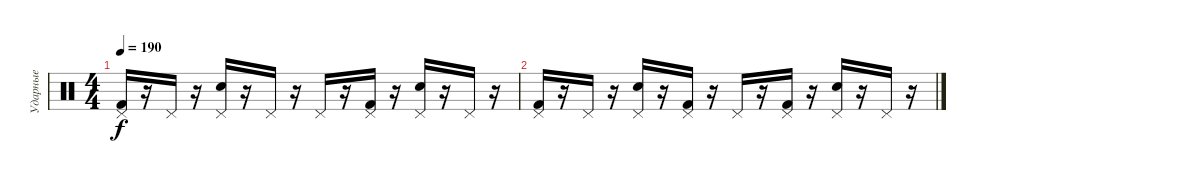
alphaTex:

\track ("Ударные" "Ударные") {instrument percussion}
\staff {score}
\articulation defaults
\ts (4 4)
\tempo 190
\clef neutral
\ks c
("Pedal Hi-Hat (hit)" "Kick (hit) 2").16{dy f} r.16 "Pedal Hi-Hat (hit)".16 r.16 ("Pedal Hi-Hat (hit)" "Electric Snare (hit)").16 r.16 "Pedal Hi-Hat (hit)".16 r.16 "Pedal Hi-Hat (hit)".16 r.16 ("Pedal Hi-Hat (hit)" "Kick (hit) 2").16 r.16 ("Pedal Hi-Hat (hit)" "Electric Snare (hit)").16 r.16 "Pedal Hi-Hat (hit)".16 r.16 |
("Pedal Hi-Hat (hit)" "Kick (hit) 2").16 r.16 "Pedal Hi-Hat (hit)".16 r.16 ("Pedal Hi-Hat (hit)" "Electric Snare (hit)").16 r.16 ("Pedal Hi-Hat (hit)" "Kick (hit) 2").16 r.16 "Pedal Hi-Hat (hit)".16 r.16 ("Pedal Hi-Hat (hit)" "Kick (hit) 2").16 r.16 ("Pedal Hi-Hat (hit)" "Electric Snare (hit)").16 r.16 "Pedal Hi-Hat (hit)".16 r.16
